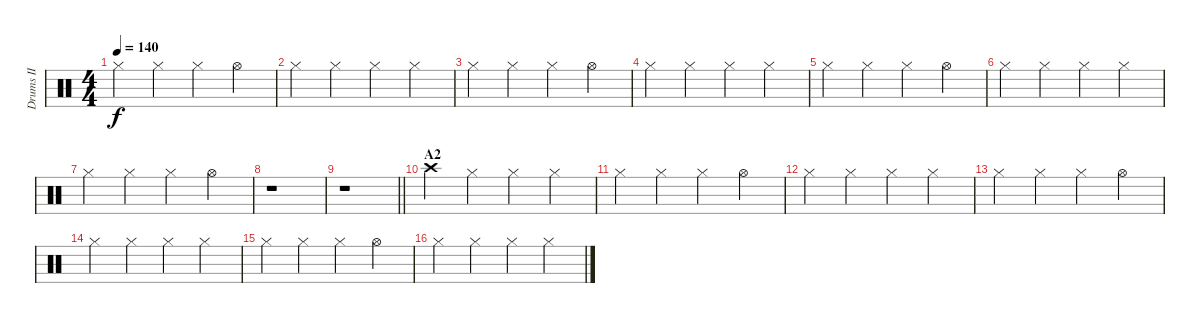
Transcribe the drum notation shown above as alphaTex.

\track ("Drums II" "Drums II") {instrument percussion}
\staff {score}
\articulation defaults
\ts (4 4)
\tempo 140
\clef neutral
\ks c "Hi-Hat (closed)".4{dy f} "Hi-Hat (closed)".4 "Hi-Hat (closed)".4 "Hi-Hat (open)".4
|
"Hi-Hat (closed)".4 "Hi-Hat (closed)".4 "Hi-Hat (closed)".4 "Hi-Hat (closed)".4 |
"Hi-Hat (closed)".4 "Hi-Hat (closed)".4 "Hi-Hat (closed)".4 "Hi-Hat (open)".4 |
"Hi-Hat (closed)".4 "Hi-Hat (closed)".4 "Hi-Hat (closed)".4 "Hi-Hat (closed)".4 |
"Hi-Hat (closed)".4 "Hi-Hat (closed)".4 "Hi-Hat (closed)".4 "Hi-Hat (open)".4 |
"Hi-Hat (closed)".4 "Hi-Hat (closed)".4 "Hi-Hat (closed)".4 "Hi-Hat (closed)".4 |
"Hi-Hat (closed)".4 "Hi-Hat (closed)".4 "Hi-Hat (closed)".4 "Hi-Hat (open)".4 |
r.1 |
\barLineRight lightlight
r.1 |
\section ("" "A2")
"Crash high (hit)".4 "Hi-Hat (closed)".4 "Hi-Hat (closed)".4 "Hi-Hat (closed)".4 |
"Hi-Hat (closed)".4 "Hi-Hat (closed)".4 "Hi-Hat (closed)".4 "Hi-Hat (open)".4 |
"Hi-Hat (closed)".4 "Hi-Hat (closed)".4 "Hi-Hat (closed)".4 "Hi-Hat (closed)".4 |
"Hi-Hat (closed)".4 "Hi-Hat (closed)".4 "Hi-Hat (closed)".4 "Hi-Hat (open)".4 |
"Hi-Hat (closed)".4 "Hi-Hat (closed)".4 "Hi-Hat (closed)".4 "Hi-Hat (closed)".4 |
"Hi-Hat (closed)".4 "Hi-Hat (closed)".4 "Hi-Hat (closed)".4 "Hi-Hat (open)".4 |
"Hi-Hat (closed)".4 "Hi-Hat (closed)".4 "Hi-Hat (closed)".4 "Hi-Hat (closed)".4
